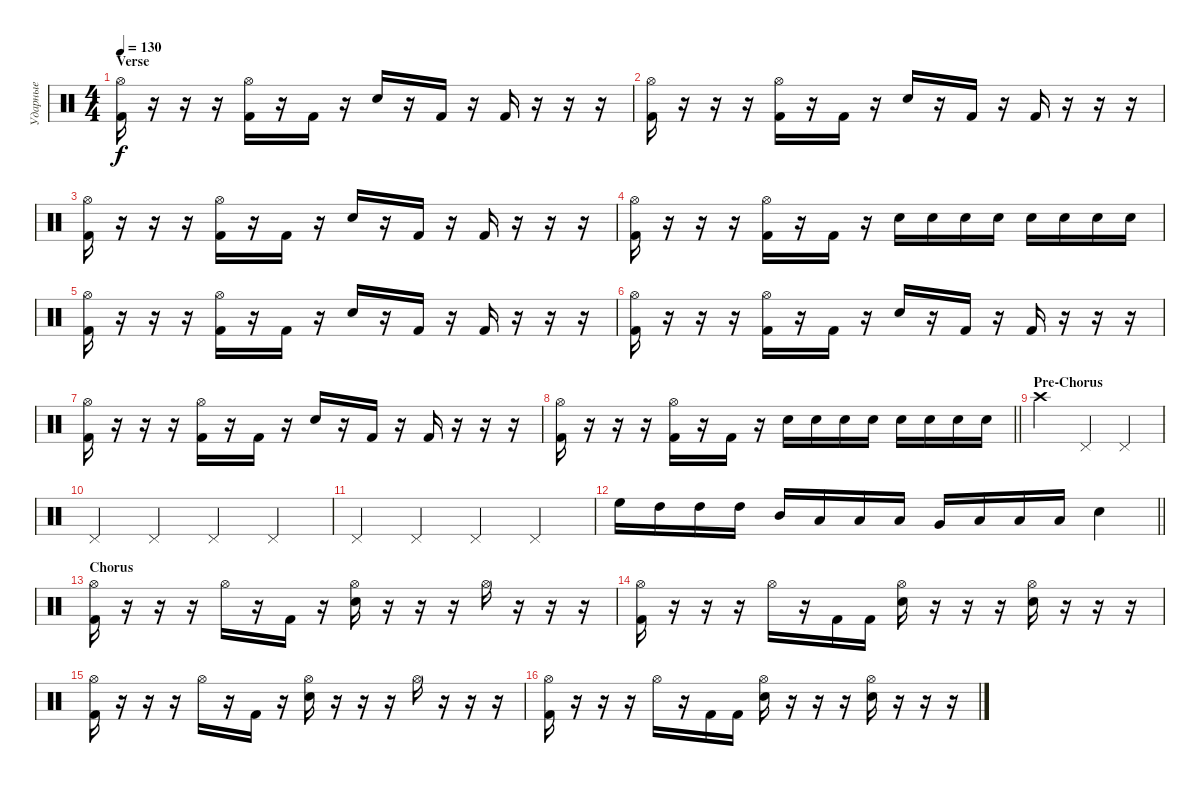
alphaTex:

\track ("Ударные" "Ударные") {instrument percussion}
\staff {score}
\articulation defaults
\ts (4 4)
\section ("" "Verse")
\tempo 130
\clef neutral
\ks c
("Hi-Hat (open)" "Kick (hit) 2").16{dy f} r.16 r.16 r.16 ("Hi-Hat (open)" "Kick (hit) 2").16 r.16 "Kick (hit) 2".16 r.16 "Electric Snare (hit)".16 r.16 "Kick (hit) 2".16 r.16 "Kick (hit) 2".16 r.16 r.16 r.16 |
("Hi-Hat (open)" "Kick (hit) 2").16 r.16 r.16 r.16 ("Hi-Hat (open)" "Kick (hit) 2").16 r.16 "Kick (hit) 2".16 r.16 "Electric Snare (hit)".16 r.16 "Kick (hit) 2".16 r.16 "Kick (hit) 2".16 r.16 r.16 r.16 |
("Hi-Hat (open)" "Kick (hit) 2").16 r.16 r.16 r.16 ("Hi-Hat (open)" "Kick (hit) 2").16 r.16 "Kick (hit) 2".16 r.16 "Electric Snare (hit)".16 r.16 "Kick (hit) 2".16 r.16 "Kick (hit) 2".16 r.16 r.16 r.16 |
("Hi-Hat (open)" "Kick (hit) 2").16 r.16 r.16 r.16 ("Hi-Hat (open)" "Kick (hit) 2").16 r.16 "Kick (hit) 2".16 r.16 "Electric Snare (hit)".16 "Electric Snare (hit)".16 "Electric Snare (hit)".16 "Electric Snare (hit)".16 "Snare (hit) 2".16 "Snare (hit) 2".16 "Snare (hit) 2".16 "Snare (hit) 2".16 |
("Hi-Hat (open)" "Kick (hit) 2").16 r.16 r.16 r.16 ("Hi-Hat (open)" "Kick (hit) 2").16 r.16 "Kick (hit) 2".16 r.16 "Electric Snare (hit)".16 r.16 "Kick (hit) 2".16 r.16 "Kick (hit) 2".16 r.16 r.16 r.16 |
("Hi-Hat (open)" "Kick (hit) 2").16 r.16 r.16 r.16 ("Hi-Hat (open)" "Kick (hit) 2").16 r.16 "Kick (hit) 2".16 r.16 "Electric Snare (hit)".16 r.16 "Kick (hit) 2".16 r.16 "Kick (hit) 2".16 r.16 r.16 r.16 |
("Hi-Hat (open)" "Kick (hit) 2").16 r.16 r.16 r.16 ("Hi-Hat (open)" "Kick (hit) 2").16 r.16 "Kick (hit) 2".16 r.16 "Electric Snare (hit)".16 r.16 "Kick (hit) 2".16 r.16 "Kick (hit) 2".16 r.16 r.16 r.16 |
\barLineRight lightlight
("Hi-Hat (open)" "Kick (hit) 2").16 r.16 r.16 r.16 ("Hi-Hat (open)" "Kick (hit) 2").16 r.16 "Kick (hit) 2".16 r.16 "Electric Snare (hit)".16 "Electric Snare (hit)".16 "Electric Snare (hit)".16 "Electric Snare (hit)".16 "Snare (hit) 2".16 "Snare (hit) 2".16 "Snare (hit) 2".16 "Snare (hit) 2".16 |
\section ("" "Pre-Chorus")
"Crash high (hit)".2 "Pedal Hi-Hat (hit)".4 "Pedal Hi-Hat (hit)".4 |
"Pedal Hi-Hat (hit)".4 "Pedal Hi-Hat (hit)".4 "Pedal Hi-Hat (hit)".4 "Pedal Hi-Hat (hit)".4 |
"Pedal Hi-Hat (hit)".4 "Pedal Hi-Hat (hit)".4 "Pedal Hi-Hat (hit)".4 "Pedal Hi-Hat (hit)".4 |
\barLineRight lightlight "High Floor Tom (hit)".16 "High Tom (hit)".16 "High Tom (hit)".16 "High Tom (hit)".16 "Mid Tom (hit)".16 "Low Tom (hit)".16 "Low Tom (hit)".16 "Low Tom (hit)".16 "Very Low Tom (hit)".16 "Low Floor Tom (hit)".16 "Low Floor Tom (hit)".16 "Low Floor Tom (hit)".16 "Electric Snare (hit)".4
|
\section ("" "Chorus")
("Hi-Hat (open)" "Kick (hit) 2").16 r.16 r.16 r.16 "Hi-Hat (open)".16 r.16 "Kick (hit) 2".16 r.16 ("Hi-Hat (open)" "Electric Snare (hit)").16 r.16 r.16 r.16 "Hi-Hat (open)".16 r.16 r.16 r.16 |
("Hi-Hat (open)" "Kick (hit) 2").16 r.16 r.16 r.16 "Hi-Hat (open)".16 r.16 "Kick (hit) 2".16 "Kick (hit) 2".16 ("Hi-Hat (open)" "Electric Snare (hit)").16 r.16 r.16 r.16 ("Hi-Hat (open)" "Electric Snare (hit)").16 r.16 r.16 r.16 |
("Hi-Hat (open)" "Kick (hit) 2").16 r.16 r.16 r.16 "Hi-Hat (open)".16 r.16 "Kick (hit) 2".16 r.16 ("Hi-Hat (open)" "Electric Snare (hit)").16 r.16 r.16 r.16 "Hi-Hat (open)".16 r.16 r.16 r.16 |
("Hi-Hat (open)" "Kick (hit) 2").16 r.16 r.16 r.16 "Hi-Hat (open)".16 r.16 "Kick (hit) 2".16 "Kick (hit) 2".16 ("Hi-Hat (open)" "Electric Snare (hit)").16 r.16 r.16 r.16 ("Hi-Hat (open)" "Electric Snare (hit)").16 r.16 r.16 r.16
